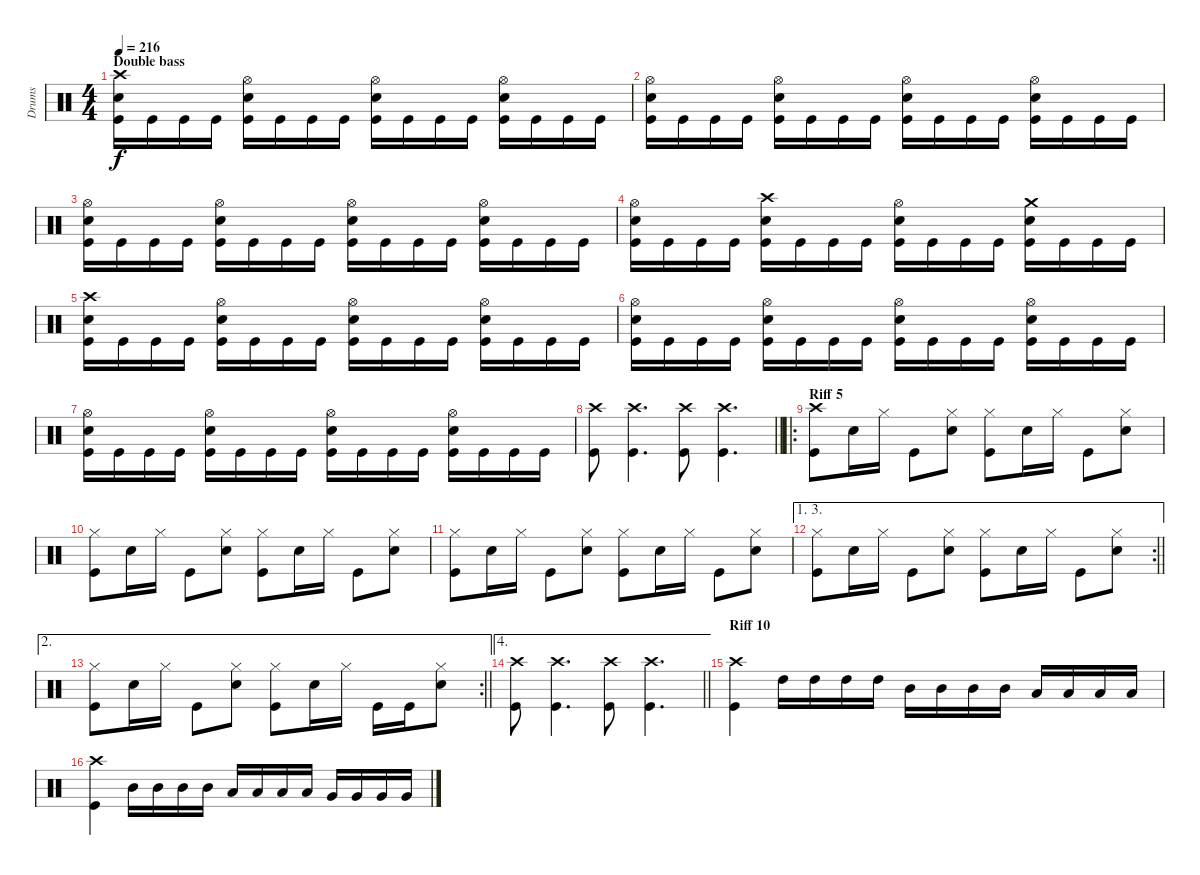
\track ("Drums" "Drums") {instrument percussion}
\staff {score}
\articulation defaults
\ts (4 4)
\section ("" "Double bass")
\tempo 216
\clef neutral
\ks c
("Crash high (hit)" "Snare (hit) 2" "Kick (hit)").16{dy f} "Kick (hit)".16 "Kick (hit)".16 "Kick (hit)".16 ("Hi-Hat (open)" "Snare (hit) 2" "Kick (hit)").16 "Kick (hit)".16 "Kick (hit)".16 "Kick (hit)".16 ("Hi-Hat (open)" "Snare (hit) 2" "Kick (hit)").16 "Kick (hit)".16 "Kick (hit)".16 "Kick (hit)".16 ("Hi-Hat (open)" "Snare (hit) 2" "Kick (hit)").16 "Kick (hit)".16 "Kick (hit)".16 "Kick (hit)".16 |
("Hi-Hat (open)" "Snare (hit) 2" "Kick (hit)").16 "Kick (hit)".16 "Kick (hit)".16 "Kick (hit)".16 ("Hi-Hat (open)" "Snare (hit) 2" "Kick (hit)").16 "Kick (hit)".16 "Kick (hit)".16 "Kick (hit)".16 ("Hi-Hat (open)" "Snare (hit) 2" "Kick (hit)").16 "Kick (hit)".16 "Kick (hit)".16 "Kick (hit)".16 ("Hi-Hat (open)" "Snare (hit) 2" "Kick (hit)").16 "Kick (hit)".16 "Kick (hit)".16 "Kick (hit)".16 |
("Hi-Hat (open)" "Snare (hit) 2" "Kick (hit)").16 "Kick (hit)".16 "Kick (hit)".16 "Kick (hit)".16 ("Hi-Hat (open)" "Snare (hit) 2" "Kick (hit)").16 "Kick (hit)".16 "Kick (hit)".16 "Kick (hit)".16 ("Hi-Hat (open)" "Snare (hit) 2" "Kick (hit)").16 "Kick (hit)".16 "Kick (hit)".16 "Kick (hit)".16 ("Hi-Hat (open)" "Snare (hit) 2" "Kick (hit)").16 "Kick (hit)".16 "Kick (hit)".16 "Kick (hit)".16 |
("Hi-Hat (open)" "Snare (hit) 2" "Kick (hit)").16 "Kick (hit)".16 "Kick (hit)".16 "Kick (hit)".16 ("Crash high (hit)" "Snare (hit) 2" "Kick (hit)").16 "Kick (hit)".16 "Kick (hit)".16 "Kick (hit)".16 ("Hi-Hat (open)" "Snare (hit) 2" "Kick (hit)").16 "Kick (hit)".16 "Kick (hit)".16 "Kick (hit)".16 ("Crash medium (hit)" "Snare (hit) 2" "Kick (hit)").16 "Kick (hit)".16 "Kick (hit)".16 "Kick (hit)".16 |
("Crash high (hit)" "Snare (hit) 2" "Kick (hit)").16 "Kick (hit)".16 "Kick (hit)".16 "Kick (hit)".16 ("Hi-Hat (open)" "Snare (hit) 2" "Kick (hit)").16 "Kick (hit)".16 "Kick (hit)".16 "Kick (hit)".16 ("Hi-Hat (open)" "Snare (hit) 2" "Kick (hit)").16 "Kick (hit)".16 "Kick (hit)".16 "Kick (hit)".16 ("Hi-Hat (open)" "Snare (hit) 2" "Kick (hit)").16 "Kick (hit)".16 "Kick (hit)".16 "Kick (hit)".16 |
("Hi-Hat (open)" "Snare (hit) 2" "Kick (hit)").16 "Kick (hit)".16 "Kick (hit)".16 "Kick (hit)".16 ("Hi-Hat (open)" "Snare (hit) 2" "Kick (hit)").16 "Kick (hit)".16 "Kick (hit)".16 "Kick (hit)".16 ("Hi-Hat (open)" "Snare (hit) 2" "Kick (hit)").16 "Kick (hit)".16 "Kick (hit)".16 "Kick (hit)".16 ("Hi-Hat (open)" "Snare (hit) 2" "Kick (hit)").16 "Kick (hit)".16 "Kick (hit)".16 "Kick (hit)".16 |
("Hi-Hat (open)" "Snare (hit) 2" "Kick (hit)").16 "Kick (hit)".16 "Kick (hit)".16 "Kick (hit)".16 ("Hi-Hat (open)" "Snare (hit) 2" "Kick (hit)").16 "Kick (hit)".16 "Kick (hit)".16 "Kick (hit)".16 ("Hi-Hat (open)" "Snare (hit) 2" "Kick (hit)").16 "Kick (hit)".16 "Kick (hit)".16 "Kick (hit)".16 ("Hi-Hat (open)" "Snare (hit) 2" "Kick (hit)").16 "Kick (hit)".16 "Kick (hit)".16 "Kick (hit)".16 |
\barLineRight lightlight
("Crash high (hit)" "Kick (hit)").8 ("Crash high (hit)" "Kick (hit)").4{d} ("Crash high (hit)" "Kick (hit)").8 ("Crash high (hit)" "Kick (hit)").4{d} |
\ro
\section ("" "Riff 5")
("Crash high (hit)" "Kick (hit)").8 "Snare (hit) 2".16 "Hi-Hat (closed)".16 "Kick (hit)".8 ("Hi-Hat (closed)" "Snare (hit) 2").8 ("Hi-Hat (closed)" "Kick (hit)").8 "Snare (hit) 2".16 "Hi-Hat (closed)".16 "Kick (hit)".8 ("Hi-Hat (closed)" "Snare (hit) 2").8 |
("Hi-Hat (closed)" "Kick (hit)").8 "Snare (hit) 2".16 "Hi-Hat (closed)".16 "Kick (hit)".8 ("Hi-Hat (closed)" "Snare (hit) 2").8 ("Hi-Hat (closed)" "Kick (hit)").8 "Snare (hit) 2".16 "Hi-Hat (closed)".16 "Kick (hit)".8 ("Hi-Hat (closed)" "Snare (hit) 2").8 |
("Hi-Hat (closed)" "Kick (hit)").8 "Snare (hit) 2".16 "Hi-Hat (closed)".16 "Kick (hit)".8 ("Hi-Hat (closed)" "Snare (hit) 2").8 ("Hi-Hat (closed)" "Kick (hit)").8 "Snare (hit) 2".16 "Hi-Hat (closed)".16 "Kick (hit)".8 ("Hi-Hat (closed)" "Snare (hit) 2").8 |
\ae (1 3)
\rc 2
\barLineRight lightlight
("Hi-Hat (closed)" "Kick (hit)").8 "Snare (hit) 2".16 "Hi-Hat (closed)".16 "Kick (hit)".8 ("Hi-Hat (closed)" "Snare (hit) 2").8 ("Hi-Hat (closed)" "Kick (hit)").8 "Snare (hit) 2".16 "Hi-Hat (closed)".16 "Kick (hit)".8 ("Hi-Hat (closed)" "Snare (hit) 2").8 |
\ae 2
\rc 2
\barLineRight lightlight
("Hi-Hat (closed)" "Kick (hit)").8 "Snare (hit) 2".16 "Hi-Hat (closed)".16 "Kick (hit)".8 ("Hi-Hat (closed)" "Snare (hit) 2").8 ("Hi-Hat (closed)" "Kick (hit)").8 "Snare (hit) 2".16 "Hi-Hat (closed)".16 "Kick (hit)".16 "Kick (hit)".16 ("Hi-Hat (closed)" "Snare (hit) 2").8 |
\ae 4
\barLineRight lightlight
("Crash high (hit)" "Kick (hit)").8 ("Crash high (hit)" "Kick (hit)").4{d} ("Crash high (hit)" "Kick (hit)").8 ("Crash high (hit)" "Kick (hit)").4{d} |
\section ("" "Riff 10")
("Crash high (hit)" "Kick (hit)").4 "High Tom (hit)".16 "High Tom (hit)".16 "High Tom (hit)".16 "High Tom (hit)".16 "Mid Tom (hit)".16 "Mid Tom (hit)".16 "Mid Tom (hit)".16 "Mid Tom (hit)".16 "Low Tom (hit)".16 "Low Tom (hit)".16 "Low Tom (hit)".16 "Low Tom (hit)".16 |
("Crash high (hit)" "Kick (hit)").4 "Mid Tom (hit)".16 "Mid Tom (hit)".16 "Mid Tom (hit)".16 "Mid Tom (hit)".16 "Low Tom (hit)".16 "Low Tom (hit)".16 "Low Tom (hit)".16 "Low Tom (hit)".16 "Very Low Tom (hit)".16 "Very Low Tom (hit)".16 "Very Low Tom (hit)".16 "Very Low Tom (hit)".16
